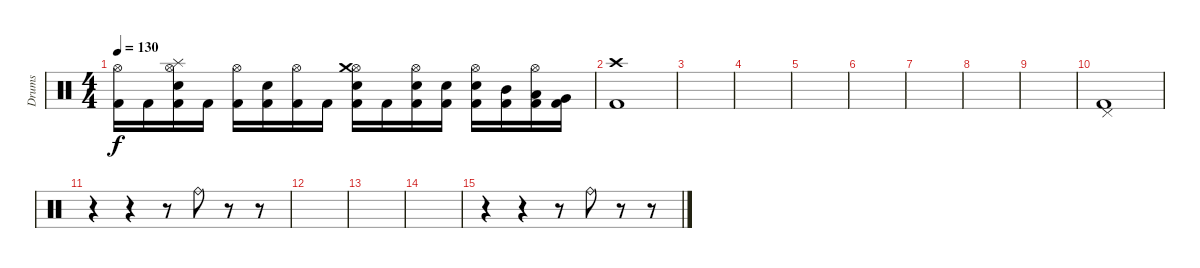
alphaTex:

\track ("Drums" "Drums") {instrument percussion}
\staff {score}
\articulation defaults
\ts (4 4)
\tempo 130
\clef neutral
\ks c
("Hi-Hat (open)" "Kick (hit) 2").16{dy f} "Kick (hit) 2".16 ("Hi-Hat (open)" "Electric Snare (hit)" "Splash (hit)" "Kick (hit) 2").16 "Kick (hit) 2".16 ("Hi-Hat (open)" "Kick (hit) 2").16 ("Electric Snare (hit)" "Kick (hit) 2").16 ("Hi-Hat (open)" "Kick (hit) 2").16 "Kick (hit) 2".16 ("Hi-Hat (open)" "Electric Snare (hit)" "Crash medium (hit)" "Kick (hit) 2").16 "Kick (hit) 2".16 ("Hi-Hat (open)" "Electric Snare (hit)" "Kick (hit) 2").16 ("Electric Snare (hit)" "Kick (hit) 2").16 ("Hi-Hat (open)" "Electric Snare (hit)" "Kick (hit) 2").16 ("Mid Tom (hit)" "Kick (hit) 2").16 ("Hi-Hat (open)" "Low Tom (hit)" "Kick (hit) 2").16 ("Very Low Tom (hit)" "Kick (hit) 2").16 |
("Crash high (hit)" "Kick (hit) 2").1 |
|
|
|
|
|
|
|
("Pedal Hi-Hat (hit)" "Kick (hit) 2").1 |
r.4 r.4 r.8 "Ride (bell)".8 r.8 r.8 |
|
|
|
r.4 r.4 r.8 "Ride (bell)".8 r.8 r.8
